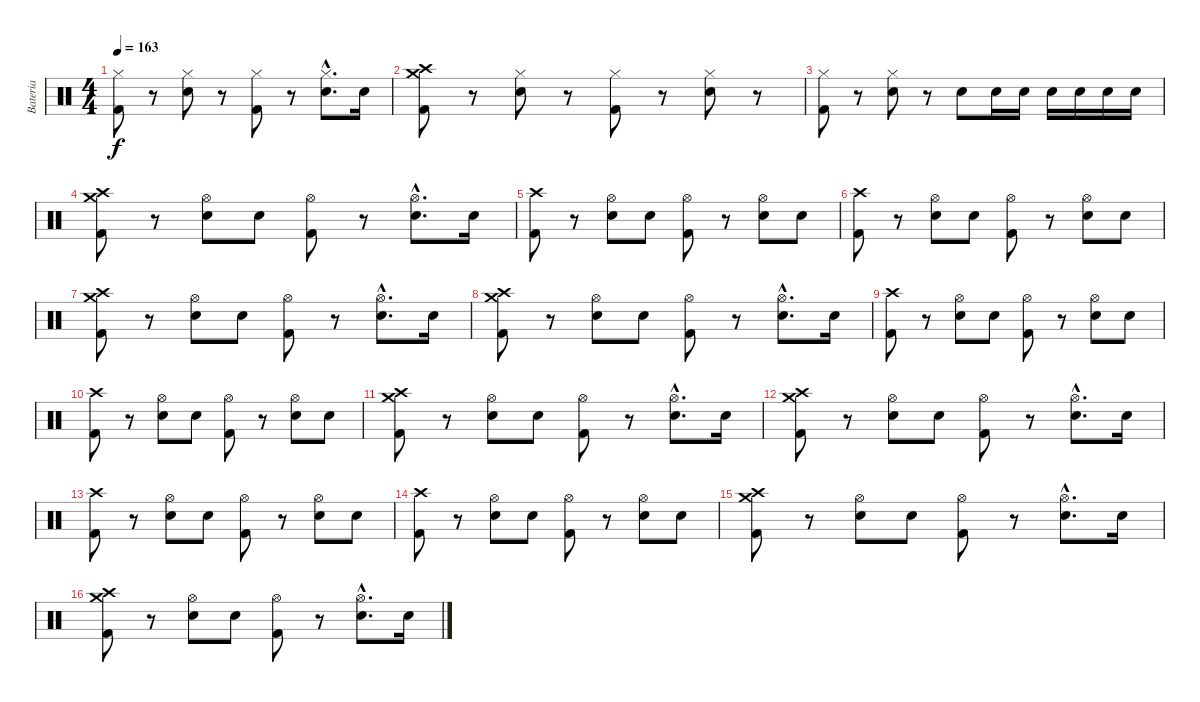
\track ("Bateria" "Bateria") {instrument percussion}
\staff {score}
\articulation defaults
\ts (4 4)
\tempo 163
\clef neutral
\ks c
("Hi-Hat (closed)" "Kick (hit) 2").8{dy f} r.8 ("Hi-Hat (closed)" "Snare (hit) 2").8 r.8 ("Hi-Hat (closed)" "Kick (hit) 2").8 r.8 ("Hi-Hat (closed)"{hac} "Snare (hit) 2"{hac}).8{d} "Snare (hit) 2".16 |
("Crash high (hit)" "Crash medium (hit)" "Kick (hit) 2").8 r.8 ("Hi-Hat (closed)" "Snare (hit) 2").8 r.8 ("Hi-Hat (closed)" "Kick (hit) 2").8 r.8 ("Hi-Hat (closed)" "Snare (hit) 2").8 r.8 |
("Hi-Hat (closed)" "Kick (hit) 2").8 r.8 ("Hi-Hat (closed)" "Snare (hit) 2").8 r.8 "Snare (hit) 2".8 "Snare (hit) 2".16 "Snare (hit) 2".16 "Snare (hit) 2".16 "Snare (hit) 2".16 "Snare (hit) 2".16 "Snare (hit) 2".16 |
("Crash high (hit)" "Crash medium (hit)" "Kick (hit) 2").8 r.8 ("Hi-Hat (open)" "Snare (hit) 2").8 "Snare (hit) 2".8 ("Hi-Hat (open)" "Kick (hit) 2").8 r.8 ("Hi-Hat (open)"{hac} "Snare (hit) 2"{hac}).8{d} "Snare (hit) 2".16 |
("Crash high (hit)" "Kick (hit) 2").8 r.8 ("Hi-Hat (open)" "Snare (hit) 2").8 "Snare (hit) 2".8 ("Hi-Hat (open)" "Kick (hit) 2").8 r.8 ("Hi-Hat (open)" "Snare (hit) 2").8 "Snare (hit) 2".8 |
("Crash high (hit)" "Kick (hit) 2").8 r.8 ("Hi-Hat (open)" "Snare (hit) 2").8 "Snare (hit) 2".8 ("Hi-Hat (open)" "Kick (hit) 2").8 r.8 ("Hi-Hat (open)" "Snare (hit) 2").8 "Snare (hit) 2".8 |
("Crash high (hit)" "Crash medium (hit)" "Kick (hit) 2").8 r.8 ("Hi-Hat (open)" "Snare (hit) 2").8 "Snare (hit) 2".8 ("Hi-Hat (open)" "Kick (hit) 2").8 r.8 ("Hi-Hat (open)"{hac} "Snare (hit) 2"{hac}).8{d} "Snare (hit) 2".16 |
("Crash high (hit)" "Crash medium (hit)" "Kick (hit) 2").8 r.8 ("Hi-Hat (open)" "Snare (hit) 2").8 "Snare (hit) 2".8 ("Hi-Hat (open)" "Kick (hit) 2").8 r.8 ("Hi-Hat (open)"{hac} "Snare (hit) 2"{hac}).8{d} "Snare (hit) 2".16 |
("Crash high (hit)" "Kick (hit) 2").8 r.8 ("Hi-Hat (open)" "Snare (hit) 2").8 "Snare (hit) 2".8 ("Hi-Hat (open)" "Kick (hit) 2").8 r.8 ("Hi-Hat (open)" "Snare (hit) 2").8 "Snare (hit) 2".8 |
("Crash high (hit)" "Kick (hit) 2").8 r.8 ("Hi-Hat (open)" "Snare (hit) 2").8 "Snare (hit) 2".8 ("Hi-Hat (open)" "Kick (hit) 2").8 r.8 ("Hi-Hat (open)" "Snare (hit) 2").8 "Snare (hit) 2".8 |
("Crash high (hit)" "Crash medium (hit)" "Kick (hit) 2").8 r.8 ("Hi-Hat (open)" "Snare (hit) 2").8 "Snare (hit) 2".8 ("Hi-Hat (open)" "Kick (hit) 2").8 r.8 ("Hi-Hat (open)"{hac} "Snare (hit) 2"{hac}).8{d} "Snare (hit) 2".16 |
("Crash high (hit)" "Crash medium (hit)" "Kick (hit) 2").8 r.8 ("Hi-Hat (open)" "Snare (hit) 2").8 "Snare (hit) 2".8 ("Hi-Hat (open)" "Kick (hit) 2").8 r.8 ("Hi-Hat (open)"{hac} "Snare (hit) 2"{hac}).8{d} "Snare (hit) 2".16 |
("Crash high (hit)" "Kick (hit) 2").8 r.8 ("Hi-Hat (open)" "Snare (hit) 2").8 "Snare (hit) 2".8 ("Hi-Hat (open)" "Kick (hit) 2").8 r.8 ("Hi-Hat (open)" "Snare (hit) 2").8 "Snare (hit) 2".8 |
("Crash high (hit)" "Kick (hit) 2").8 r.8 ("Hi-Hat (open)" "Snare (hit) 2").8 "Snare (hit) 2".8 ("Hi-Hat (open)" "Kick (hit) 2").8 r.8 ("Hi-Hat (open)" "Snare (hit) 2").8 "Snare (hit) 2".8 |
("Crash high (hit)" "Crash medium (hit)" "Kick (hit) 2").8 r.8 ("Hi-Hat (open)" "Snare (hit) 2").8 "Snare (hit) 2".8 ("Hi-Hat (open)" "Kick (hit) 2").8 r.8 ("Hi-Hat (open)"{hac} "Snare (hit) 2"{hac}).8{d} "Snare (hit) 2".16 |
("Crash high (hit)" "Crash medium (hit)" "Kick (hit) 2").8 r.8 ("Hi-Hat (open)" "Snare (hit) 2").8 "Snare (hit) 2".8 ("Hi-Hat (open)" "Kick (hit) 2").8 r.8 ("Hi-Hat (open)"{hac} "Snare (hit) 2"{hac}).8{d} "Snare (hit) 2".16
